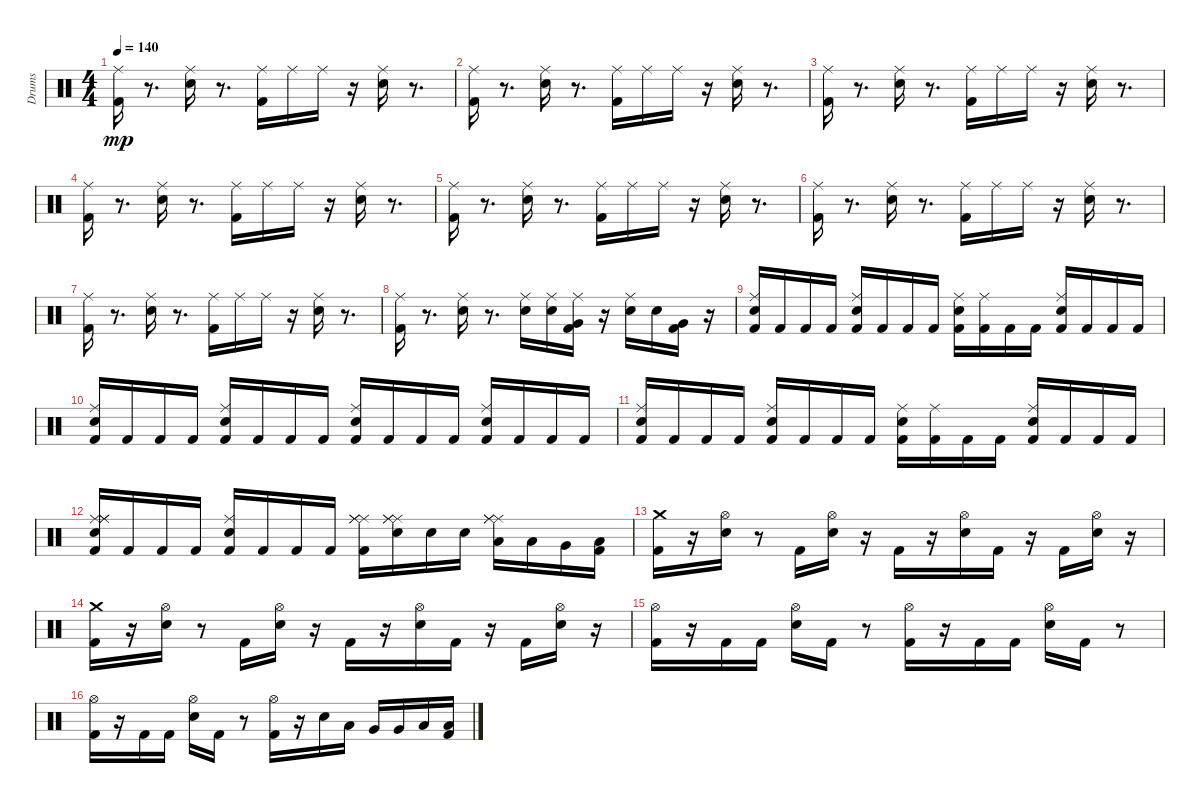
\track ("Drums" "Drums") {instrument percussion}
\staff {score}
\articulation defaults
\ts (4 4)
\tempo 140
\clef neutral
\ks c
("Kick (hit) 2" "Ride (middle)").16{dy mp} r.8{d} ("Ride (middle)" "Electric Snare (hit)").16 r.8{d} ("Kick (hit) 2" "Ride (middle)").16 "Ride (middle)".16 "Ride (middle)".16 r.16 ("Electric Snare (hit)" "Ride (middle)").16 r.8{d} |
("Kick (hit) 2" "Ride (middle)").16 r.8{d} ("Electric Snare (hit)" "Ride (middle)").16 r.8{d} ("Ride (middle)" "Kick (hit) 2").16 "Ride (middle)".16 "Ride (middle)".16 r.16 ("Electric Snare (hit)" "Ride (middle)").16 r.8{d} |
("Ride (middle)" "Kick (hit) 2").16 r.8{d} ("Electric Snare (hit)" "Ride (middle)").16 r.8{d} ("Ride (middle)" "Kick (hit) 2").16 "Ride (middle)".16 "Ride (middle)".16 r.16 ("Ride (middle)" "Electric Snare (hit)").16 r.8{d} |
("Kick (hit) 2" "Ride (middle)").16 r.8{d} ("Ride (middle)" "Electric Snare (hit)").16 r.8{d} ("Kick (hit) 2" "Ride (middle)").16 "Ride (middle)".16 "Ride (middle)".16 r.16 ("Electric Snare (hit)" "Ride (middle)").16 r.8{d} |
("Ride (middle)" "Kick (hit) 2").16 r.8{d} ("Ride (middle)" "Electric Snare (hit)").16 r.8{d} ("Kick (hit) 2" "Ride (middle)").16 "Ride (middle)".16 "Ride (middle)".16 r.16 ("Electric Snare (hit)" "Ride (middle)").16 r.8{d} |
("Ride (middle)" "Kick (hit) 2").16 r.8{d} ("Ride (middle)" "Electric Snare (hit)").16 r.8{d} ("Kick (hit) 2" "Ride (middle)").16 "Ride (middle)".16 "Ride (middle)".16 r.16 ("Ride (middle)" "Electric Snare (hit)").16 r.8{d} |
("Ride (middle)" "Kick (hit) 2").16 r.8{d} ("Ride (middle)" "Electric Snare (hit)").16 r.8{d} ("Ride (middle)" "Kick (hit) 2").16 "Ride (middle)".16 "Ride (middle)".16 r.16 ("Electric Snare (hit)" "Ride (middle)").16 r.8{d} |
("Kick (hit) 2" "Ride (middle)").16 r.8{d} ("Electric Snare (hit)" "Ride (middle)").16 r.8{d} ("Ride (middle)" "Electric Snare (hit)").16 ("Electric Snare (hit)" "Ride (middle)").16 ("Ride (middle)" "Kick (hit) 2" "Very Low Tom (hit)").16 r.16 ("Ride (middle)" "Electric Snare (hit)").16 "Electric Snare (hit)".16 ("Kick (hit) 2" "Very Low Tom (hit)").16 r.16 |
("Electric Snare (hit)" "Ride (middle)" "Kick (hit) 2").16 "Kick (hit) 2".16 "Kick (hit) 2".16 "Kick (hit) 2".16 ("Electric Snare (hit)" "Kick (hit) 2" "Ride (middle)").16 "Kick (hit) 2".16 "Kick (hit) 2".16 "Kick (hit) 2".16 ("Ride (middle)" "Kick (hit) 2" "Electric Snare (hit)").16 ("Ride (middle)" "Kick (hit) 2").16 "Kick (hit) 2".16 "Kick (hit) 2".16 ("Kick (hit) 2" "Electric Snare (hit)" "Ride (middle)").16 "Kick (hit) 2".16 "Kick (hit) 2".16 "Kick (hit) 2".16 |
("Kick (hit) 2" "Ride (middle)" "Electric Snare (hit)").16 "Kick (hit) 2".16 "Kick (hit) 2".16 "Kick (hit) 2".16 ("Kick (hit) 2" "Electric Snare (hit)" "Ride (middle)").16 "Kick (hit) 2".16 "Kick (hit) 2".16 "Kick (hit) 2".16 ("Ride (middle)" "Electric Snare (hit)" "Kick (hit) 2").16 "Kick (hit) 2".16 "Kick (hit) 2".16 "Kick (hit) 2".16 ("Kick (hit) 2" "Ride (middle)" "Electric Snare (hit)").16 "Kick (hit) 2".16 "Kick (hit) 2".16 "Kick (hit) 2".16 |
("Ride (middle)" "Electric Snare (hit)" "Kick (hit) 2").16 "Kick (hit) 2".16 "Kick (hit) 2".16 "Kick (hit) 2".16 ("Kick (hit) 2" "Ride (middle)" "Electric Snare (hit)").16 "Kick (hit) 2".16 "Kick (hit) 2".16 "Kick (hit) 2".16 ("Kick (hit) 2" "Electric Snare (hit)" "Ride (middle)").16 ("Ride (middle)" "Kick (hit) 2").16 "Kick (hit) 2".16 "Kick (hit) 2".16 ("Electric Snare (hit)" "Kick (hit) 2" "Ride (middle)").16 "Kick (hit) 2".16 "Kick (hit) 2".16 "Kick (hit) 2".16 |
("Ride (middle)" "Electric Snare (hit)" "Ride (middle)" "Ride (middle)" "Kick (hit) 2").16 "Kick (hit) 2".16 "Kick (hit) 2".16 "Kick (hit) 2".16 ("Ride (middle)" "Kick (hit) 2" "Electric Snare (hit)").16 "Kick (hit) 2".16 "Kick (hit) 2".16 "Kick (hit) 2".16 ("Ride (middle)" "Ride (middle)" "Ride (middle)" "Kick (hit) 2").16 ("Electric Snare (hit)" "Ride (middle)" "Ride (middle)" "Ride (middle)").16 "Electric Snare (hit)".16 "Electric Snare (hit)".16 ("Ride (middle)" "Ride (middle)" "Ride (middle)" "Low Tom (hit)").16 "Low Tom (hit)".16 "Very Low Tom (hit)".16 ("Kick (hit) 2" "Low Floor Tom (hit)").16 |
("Kick (hit) 2" "Crash medium (hit)").16 r.16 ("Hi-Hat (open)" "Electric Snare (hit)").16 r.8 "Kick (hit) 2".16 ("Hi-Hat (open)" "Electric Snare (hit)").16 r.16 "Kick (hit) 2".16 r.16 ("Hi-Hat (open)" "Electric Snare (hit)").16 "Kick (hit) 2".16 r.16 "Kick (hit) 2".16 ("Electric Snare (hit)" "Hi-Hat (open)").16 r.16 |
("Crash medium (hit)" "Kick (hit) 2").16 r.16 ("Hi-Hat (open)" "Electric Snare (hit)").16 r.8 "Kick (hit) 2".16 ("Hi-Hat (open)" "Electric Snare (hit)").16 r.16 "Kick (hit) 2".16 r.16 ("Hi-Hat (open)" "Electric Snare (hit)").16 "Kick (hit) 2".16 r.16 "Kick (hit) 2".16 ("Hi-Hat (open)" "Electric Snare (hit)").16 r.16 |
("Hi-Hat (open)" "Kick (hit) 2").16 r.16 "Kick (hit) 2".16 "Kick (hit) 2".16 ("Electric Snare (hit)" "Hi-Hat (open)").16 "Kick (hit) 2".16 r.8 ("Hi-Hat (open)" "Kick (hit) 2").16 r.16 "Kick (hit) 2".16 "Kick (hit) 2".16 ("Hi-Hat (open)" "Electric Snare (hit)").16 "Kick (hit) 2".16 r.8 |
("Hi-Hat (open)" "Kick (hit) 2").16 r.16 "Kick (hit) 2".16 "Kick (hit) 2".16 ("Electric Snare (hit)" "Hi-Hat (open)").16 "Kick (hit) 2".16 r.8 ("Hi-Hat (open)" "Kick (hit) 2").16 r.16 "Electric Snare (hit)".16 "Low Tom (hit)".16 "Very Low Tom (hit)".16 "Very Low Tom (hit)".16 "Low Floor Tom (hit)".16 ("Kick (hit) 2" "Low Floor Tom (hit)").16
